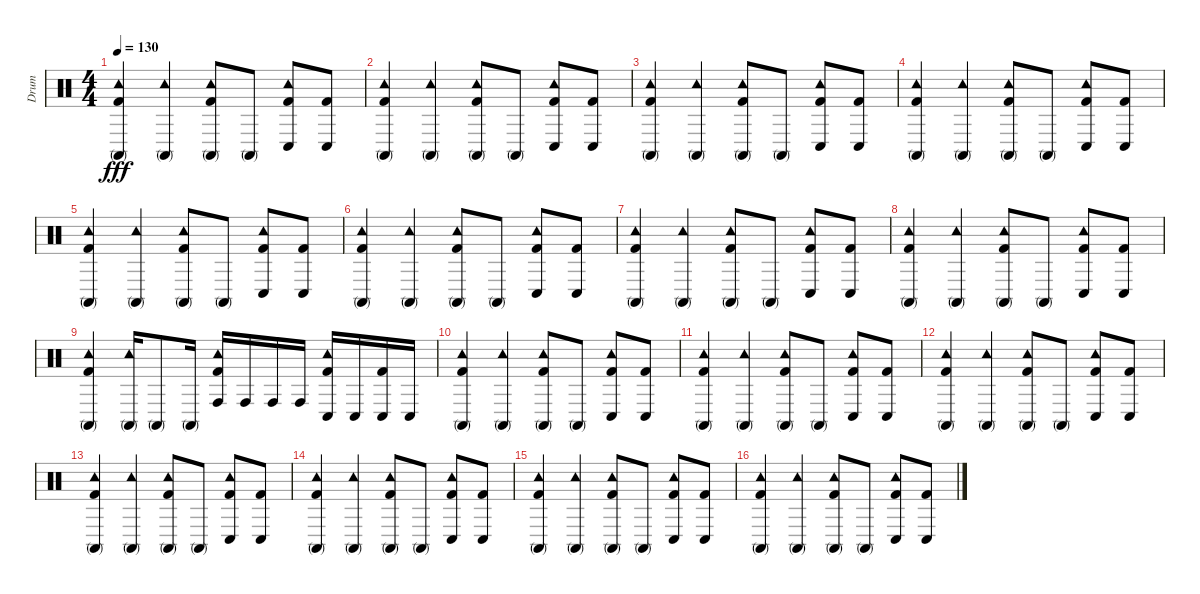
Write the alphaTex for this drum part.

\track ("Drum" "Drum") {instrument percussion}
\staff {score}
\articulation defaults
\ts (4 4)
\tempo 130
\clef neutral
\ks c
("Tambourine (hit)" "Conga high (mute)" "Kick (hit) 2").4{dy fff} ("Tambourine (hit)" "Conga high (mute)").4 ("Tambourine (hit)" "Conga high (mute)" "Kick (hit) 2").8 "Conga high (mute)".8 ("Tambourine (hit)" "Conga low (hit)" "Kick (hit) 2").8 ("Conga low (hit)" "Kick (hit) 2").8 |
("Tambourine (hit)" "Conga high (mute)" "Kick (hit) 2").4 ("Tambourine (hit)" "Conga high (mute)").4 ("Tambourine (hit)" "Conga high (mute)" "Kick (hit) 2").8 "Conga high (mute)".8 ("Tambourine (hit)" "Conga low (hit)" "Kick (hit) 2").8 ("Conga low (hit)" "Kick (hit) 2").8 |
("Tambourine (hit)" "Conga high (mute)" "Kick (hit) 2").4 ("Tambourine (hit)" "Conga high (mute)").4 ("Tambourine (hit)" "Conga high (mute)" "Kick (hit) 2").8 "Conga high (mute)".8 ("Tambourine (hit)" "Conga low (hit)" "Kick (hit) 2").8 ("Conga low (hit)" "Kick (hit) 2").8 |
("Tambourine (hit)" "Conga high (mute)" "Kick (hit) 2").4 ("Tambourine (hit)" "Conga high (mute)").4 ("Tambourine (hit)" "Conga high (mute)" "Kick (hit) 2").8 "Conga high (mute)".8 ("Tambourine (hit)" "Conga low (hit)" "Kick (hit) 2").8 ("Conga low (hit)" "Kick (hit) 2").8 |
("Tambourine (hit)" "Conga high (mute)" "Kick (hit) 2").4 ("Tambourine (hit)" "Conga high (mute)").4 ("Tambourine (hit)" "Conga high (mute)" "Kick (hit) 2").8 "Conga high (mute)".8 ("Tambourine (hit)" "Conga low (hit)" "Kick (hit) 2").8 ("Conga low (hit)" "Kick (hit) 2").8 |
("Tambourine (hit)" "Conga high (mute)" "Kick (hit) 2").4 ("Tambourine (hit)" "Conga high (mute)").4 ("Tambourine (hit)" "Conga high (mute)" "Kick (hit) 2").8 "Conga high (mute)".8 ("Tambourine (hit)" "Conga low (hit)" "Kick (hit) 2").8 ("Conga low (hit)" "Kick (hit) 2").8 |
("Tambourine (hit)" "Conga high (mute)" "Kick (hit) 2").4 ("Tambourine (hit)" "Conga high (mute)").4 ("Tambourine (hit)" "Conga high (mute)" "Kick (hit) 2").8 "Conga high (mute)".8 ("Tambourine (hit)" "Conga low (hit)" "Kick (hit) 2").8 ("Conga low (hit)" "Kick (hit) 2").8 |
("Tambourine (hit)" "Conga high (mute)" "Kick (hit) 2").4 ("Tambourine (hit)" "Conga high (mute)").4 ("Tambourine (hit)" "Conga high (mute)" "Kick (hit) 2").8 "Conga high (mute)".8 ("Tambourine (hit)" "Conga low (hit)" "Kick (hit) 2").8 ("Conga low (hit)" "Kick (hit) 2").8 |
("Tambourine (hit)" "Conga high (mute)" "Kick (hit) 2").4 ("Tambourine (hit)" "Conga high (mute)").16 "Conga high (mute)".8 "Conga high (mute)".16 ("Tambourine (hit)" "Conga high (hit)" "Kick (hit) 2").16 "Conga high (hit)".16 "Conga high (hit)".16 "Conga high (hit)".16 ("Tambourine (hit)" "Conga low (hit)" "Kick (hit) 2").16 "Conga low (hit)".16 ("Conga low (hit)" "Kick (hit) 2").16 "Conga low (hit)".16 |
("Tambourine (hit)" "Conga high (mute)" "Kick (hit) 2").4 ("Tambourine (hit)" "Conga high (mute)").4 ("Tambourine (hit)" "Conga high (mute)" "Kick (hit) 2").8 "Conga high (mute)".8 ("Tambourine (hit)" "Conga low (hit)" "Kick (hit) 2").8 ("Conga low (hit)" "Kick (hit) 2").8 |
("Tambourine (hit)" "Conga high (mute)" "Kick (hit) 2").4 ("Tambourine (hit)" "Conga high (mute)").4 ("Tambourine (hit)" "Conga high (mute)" "Kick (hit) 2").8 "Conga high (mute)".8 ("Tambourine (hit)" "Conga low (hit)" "Kick (hit) 2").8 ("Conga low (hit)" "Kick (hit) 2").8 |
("Tambourine (hit)" "Conga high (mute)" "Kick (hit) 2").4 ("Tambourine (hit)" "Conga high (mute)").4 ("Tambourine (hit)" "Conga high (mute)" "Kick (hit) 2").8 "Conga high (mute)".8 ("Tambourine (hit)" "Conga low (hit)" "Kick (hit) 2").8 ("Conga low (hit)" "Kick (hit) 2").8 |
("Tambourine (hit)" "Conga high (mute)" "Kick (hit) 2").4 ("Tambourine (hit)" "Conga high (mute)").4 ("Tambourine (hit)" "Conga high (mute)" "Kick (hit) 2").8 "Conga high (mute)".8 ("Tambourine (hit)" "Conga low (hit)" "Kick (hit) 2").8 ("Conga low (hit)" "Kick (hit) 2").8 |
("Tambourine (hit)" "Conga high (mute)" "Kick (hit) 2").4 ("Tambourine (hit)" "Conga high (mute)").4 ("Tambourine (hit)" "Conga high (mute)" "Kick (hit) 2").8 "Conga high (mute)".8 ("Tambourine (hit)" "Conga low (hit)" "Kick (hit) 2").8 ("Conga low (hit)" "Kick (hit) 2").8 |
("Tambourine (hit)" "Conga high (mute)" "Kick (hit) 2").4 ("Tambourine (hit)" "Conga high (mute)").4 ("Tambourine (hit)" "Conga high (mute)" "Kick (hit) 2").8 "Conga high (mute)".8 ("Tambourine (hit)" "Conga low (hit)" "Kick (hit) 2").8 ("Conga low (hit)" "Kick (hit) 2").8 |
("Tambourine (hit)" "Conga high (mute)" "Kick (hit) 2").4 ("Tambourine (hit)" "Conga high (mute)").4 ("Tambourine (hit)" "Conga high (mute)" "Kick (hit) 2").8 "Conga high (mute)".8 ("Tambourine (hit)" "Conga low (hit)" "Kick (hit) 2").8 ("Conga low (hit)" "Kick (hit) 2").8
